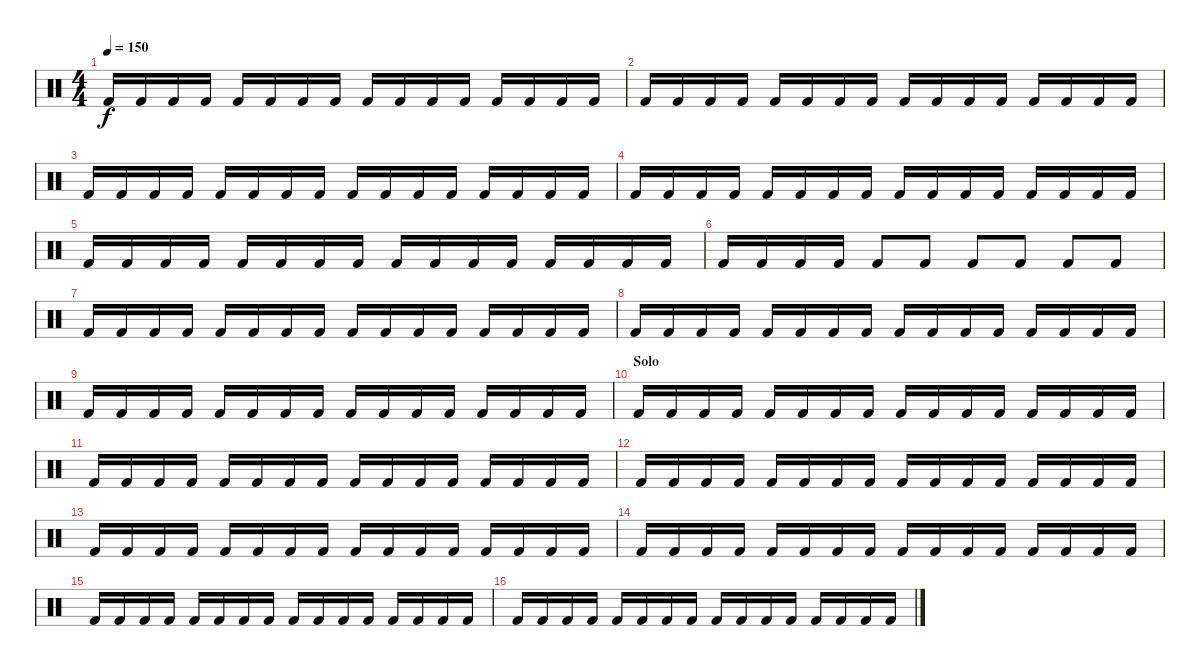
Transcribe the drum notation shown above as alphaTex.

\track "" {instrument percussion}
\staff {score}
\articulation defaults
\ts (4 4)
\tempo 150
\clef neutral
\ks c "Kick (hit) 2".16{dy f} "Kick (hit) 2".16 "Kick (hit) 2".16 "Kick (hit) 2".16 "Kick (hit) 2".16 "Kick (hit) 2".16 "Kick (hit) 2".16 "Kick (hit) 2".16 "Kick (hit) 2".16 "Kick (hit) 2".16 "Kick (hit) 2".16 "Kick (hit) 2".16 "Kick (hit) 2".16 "Kick (hit) 2".16 "Kick (hit) 2".16 "Kick (hit) 2".16
|
"Kick (hit) 2".16 "Kick (hit) 2".16 "Kick (hit) 2".16 "Kick (hit) 2".16 "Kick (hit) 2".16 "Kick (hit) 2".16 "Kick (hit) 2".16 "Kick (hit) 2".16 "Kick (hit) 2".16 "Kick (hit) 2".16 "Kick (hit) 2".16 "Kick (hit) 2".16 "Kick (hit) 2".16 "Kick (hit) 2".16 "Kick (hit) 2".16 "Kick (hit) 2".16 |
"Kick (hit) 2".16 "Kick (hit) 2".16 "Kick (hit) 2".16 "Kick (hit) 2".16 "Kick (hit) 2".16 "Kick (hit) 2".16 "Kick (hit) 2".16 "Kick (hit) 2".16 "Kick (hit) 2".16 "Kick (hit) 2".16 "Kick (hit) 2".16 "Kick (hit) 2".16 "Kick (hit) 2".16 "Kick (hit) 2".16 "Kick (hit) 2".16 "Kick (hit) 2".16 |
"Kick (hit) 2".16 "Kick (hit) 2".16 "Kick (hit) 2".16 "Kick (hit) 2".16 "Kick (hit) 2".16 "Kick (hit) 2".16 "Kick (hit) 2".16 "Kick (hit) 2".16 "Kick (hit) 2".16 "Kick (hit) 2".16 "Kick (hit) 2".16 "Kick (hit) 2".16 "Kick (hit) 2".16 "Kick (hit) 2".16 "Kick (hit) 2".16 "Kick (hit) 2".16 |
"Kick (hit) 2".16 "Kick (hit) 2".16 "Kick (hit) 2".16 "Kick (hit) 2".16 "Kick (hit) 2".16 "Kick (hit) 2".16 "Kick (hit) 2".16 "Kick (hit) 2".16 "Kick (hit) 2".16 "Kick (hit) 2".16 "Kick (hit) 2".16 "Kick (hit) 2".16 "Kick (hit) 2".16 "Kick (hit) 2".16 "Kick (hit) 2".16 "Kick (hit) 2".16 |
"Kick (hit) 2".16 "Kick (hit) 2".16 "Kick (hit) 2".16 "Kick (hit) 2".16 "Kick (hit) 2".8 "Kick (hit) 2".8 "Kick (hit) 2".8 "Kick (hit) 2".8 "Kick (hit) 2".8 "Kick (hit) 2".8 |
"Kick (hit) 2".16 "Kick (hit) 2".16 "Kick (hit) 2".16 "Kick (hit) 2".16 "Kick (hit) 2".16 "Kick (hit) 2".16 "Kick (hit) 2".16 "Kick (hit) 2".16 "Kick (hit) 2".16 "Kick (hit) 2".16 "Kick (hit) 2".16 "Kick (hit) 2".16 "Kick (hit) 2".16 "Kick (hit) 2".16 "Kick (hit) 2".16 "Kick (hit) 2".16 |
"Kick (hit) 2".16 "Kick (hit) 2".16 "Kick (hit) 2".16 "Kick (hit) 2".16 "Kick (hit) 2".16 "Kick (hit) 2".16 "Kick (hit) 2".16 "Kick (hit) 2".16 "Kick (hit) 2".16 "Kick (hit) 2".16 "Kick (hit) 2".16 "Kick (hit) 2".16 "Kick (hit) 2".16 "Kick (hit) 2".16 "Kick (hit) 2".16 "Kick (hit) 2".16 |
"Kick (hit) 2".16 "Kick (hit) 2".16 "Kick (hit) 2".16 "Kick (hit) 2".16 "Kick (hit) 2".16 "Kick (hit) 2".16 "Kick (hit) 2".16 "Kick (hit) 2".16 "Kick (hit) 2".16 "Kick (hit) 2".16 "Kick (hit) 2".16 "Kick (hit) 2".16 "Kick (hit) 2".16 "Kick (hit) 2".16 "Kick (hit) 2".16 "Kick (hit) 2".16 |
\section ("" "Solo")
"Kick (hit) 2".16 "Kick (hit) 2".16 "Kick (hit) 2".16 "Kick (hit) 2".16 "Kick (hit) 2".16 "Kick (hit) 2".16 "Kick (hit) 2".16 "Kick (hit) 2".16 "Kick (hit) 2".16 "Kick (hit) 2".16 "Kick (hit) 2".16 "Kick (hit) 2".16 "Kick (hit) 2".16 "Kick (hit) 2".16 "Kick (hit) 2".16 "Kick (hit) 2".16 |
"Kick (hit) 2".16 "Kick (hit) 2".16 "Kick (hit) 2".16 "Kick (hit) 2".16 "Kick (hit) 2".16 "Kick (hit) 2".16 "Kick (hit) 2".16 "Kick (hit) 2".16 "Kick (hit) 2".16 "Kick (hit) 2".16 "Kick (hit) 2".16 "Kick (hit) 2".16 "Kick (hit) 2".16 "Kick (hit) 2".16 "Kick (hit) 2".16 "Kick (hit) 2".16 |
"Kick (hit) 2".16 "Kick (hit) 2".16 "Kick (hit) 2".16 "Kick (hit) 2".16 "Kick (hit) 2".16 "Kick (hit) 2".16 "Kick (hit) 2".16 "Kick (hit) 2".16 "Kick (hit) 2".16 "Kick (hit) 2".16 "Kick (hit) 2".16 "Kick (hit) 2".16 "Kick (hit) 2".16 "Kick (hit) 2".16 "Kick (hit) 2".16 "Kick (hit) 2".16 |
"Kick (hit) 2".16 "Kick (hit) 2".16 "Kick (hit) 2".16 "Kick (hit) 2".16 "Kick (hit) 2".16 "Kick (hit) 2".16 "Kick (hit) 2".16 "Kick (hit) 2".16 "Kick (hit) 2".16 "Kick (hit) 2".16 "Kick (hit) 2".16 "Kick (hit) 2".16 "Kick (hit) 2".16 "Kick (hit) 2".16 "Kick (hit) 2".16 "Kick (hit) 2".16 |
"Kick (hit) 2".16 "Kick (hit) 2".16 "Kick (hit) 2".16 "Kick (hit) 2".16 "Kick (hit) 2".16 "Kick (hit) 2".16 "Kick (hit) 2".16 "Kick (hit) 2".16 "Kick (hit) 2".16 "Kick (hit) 2".16 "Kick (hit) 2".16 "Kick (hit) 2".16 "Kick (hit) 2".16 "Kick (hit) 2".16 "Kick (hit) 2".16 "Kick (hit) 2".16 |
"Kick (hit) 2".16 "Kick (hit) 2".16 "Kick (hit) 2".16 "Kick (hit) 2".16 "Kick (hit) 2".16 "Kick (hit) 2".16 "Kick (hit) 2".16 "Kick (hit) 2".16 "Kick (hit) 2".16 "Kick (hit) 2".16 "Kick (hit) 2".16 "Kick (hit) 2".16 "Kick (hit) 2".16 "Kick (hit) 2".16 "Kick (hit) 2".16 "Kick (hit) 2".16 |
"Kick (hit) 2".16 "Kick (hit) 2".16 "Kick (hit) 2".16 "Kick (hit) 2".16 "Kick (hit) 2".16 "Kick (hit) 2".16 "Kick (hit) 2".16 "Kick (hit) 2".16 "Kick (hit) 2".16 "Kick (hit) 2".16 "Kick (hit) 2".16 "Kick (hit) 2".16 "Kick (hit) 2".16 "Kick (hit) 2".16 "Kick (hit) 2".16 "Kick (hit) 2".16
